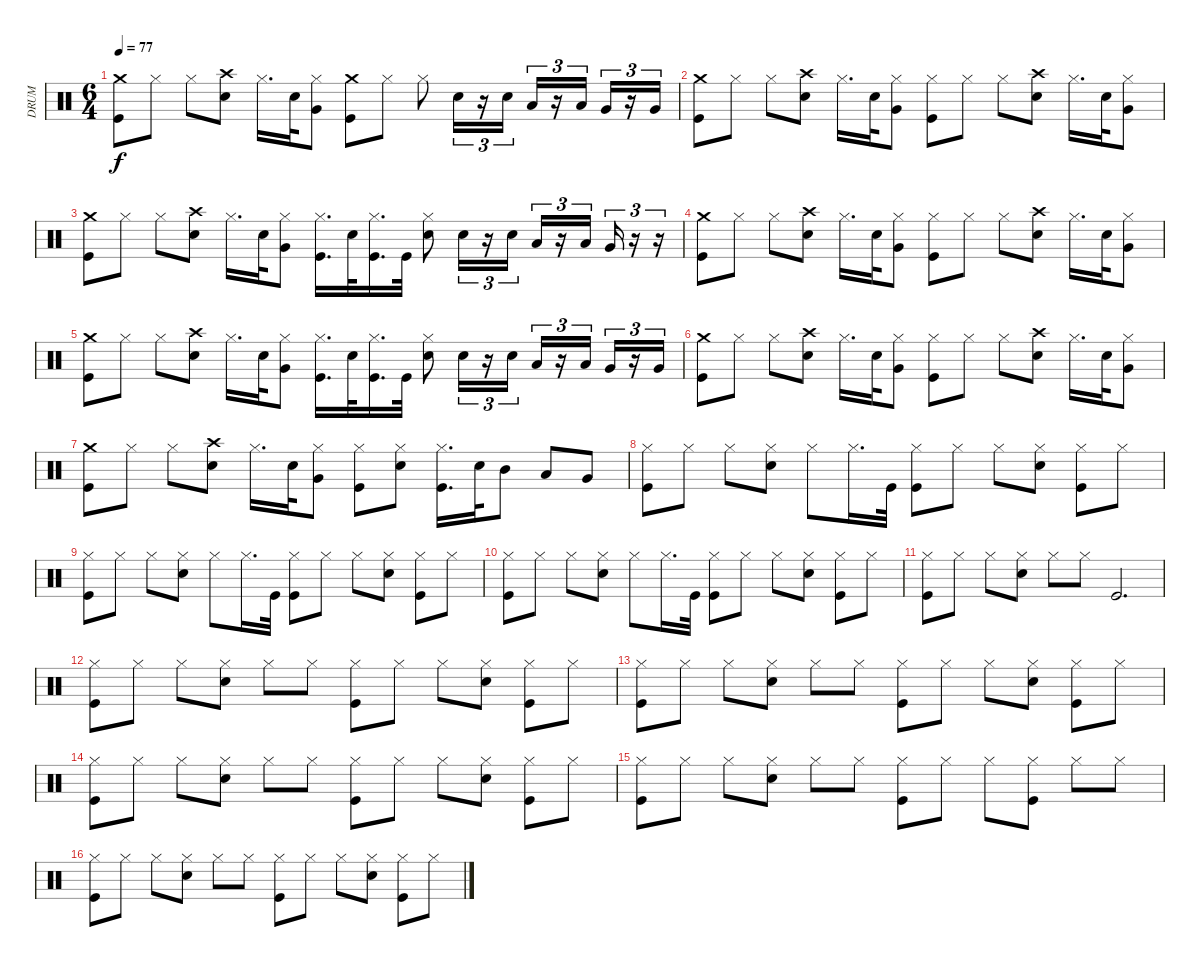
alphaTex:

\track ("DRUM" "DRUM") {instrument percussion}
\staff {score}
\articulation defaults
\ts (6 4)
\tempo 77
\clef neutral
\ks c
("Crash medium (hit)" "Kick (hit)").8{dy f} "Hi-Hat (closed)".8 "Hi-Hat (closed)".8 ("Crash high (hit)" "Snare (hit) 2").8 "Hi-Hat (closed)".16{d} "Snare (hit) 2".32 ("Hi-Hat (closed)" "Very Low Tom (hit)").8 ("Crash medium (hit)" "Kick (hit)").8 "Hi-Hat (closed)".8 "Hi-Hat (closed)".8 "Snare (hit) 2".16{tu (3 2)} r.16{tu (3 2)} "Snare (hit) 2".16{tu (3 2)} "Low Tom (hit)".16{tu (3 2)} r.16{tu (3 2)} "Low Tom (hit)".16{tu (3 2)} "Very Low Tom (hit)".16{tu (3 2)} r.16{tu (3 2)} "Very Low Tom (hit)".16{tu (3 2)} |
("Crash medium (hit)" "Kick (hit)").8 "Hi-Hat (closed)".8 "Hi-Hat (closed)".8 ("Crash high (hit)" "Snare (hit) 2").8 "Hi-Hat (closed)".16{d} "Snare (hit) 2".32 ("Hi-Hat (closed)" "Very Low Tom (hit)").8 ("Hi-Hat (closed)" "Kick (hit)").8 "Hi-Hat (closed)".8 "Hi-Hat (closed)".8 ("Crash high (hit)" "Snare (hit) 2").8 "Hi-Hat (closed)".16{d} "Snare (hit) 2".32 ("Hi-Hat (closed)" "Very Low Tom (hit)").8 |
("Crash medium (hit)" "Kick (hit)").8 "Hi-Hat (closed)".8 "Hi-Hat (closed)".8 ("Crash high (hit)" "Snare (hit) 2").8 "Hi-Hat (closed)".16{d} "Snare (hit) 2".32 ("Hi-Hat (closed)" "Very Low Tom (hit)").8 ("Hi-Hat (closed)" "Kick (hit)").16{d} "Snare (hit) 2".32 ("Hi-Hat (closed)" "Kick (hit)").16{d} "Kick (hit)".32 ("Hi-Hat (closed)" "Snare (hit) 2").8 "Snare (hit) 2".16{tu (3 2)} r.16{tu (3 2)} "Snare (hit) 2".16{tu (3 2)} "Low Tom (hit)".16{tu (3 2)} r.16{tu (3 2)} "Low Tom (hit)".16{tu (3 2)} "Very Low Tom (hit)".16{tu (3 2)} r.16{tu (3 2)} r.16{tu (3 2)} |
("Crash medium (hit)" "Kick (hit)").8 "Hi-Hat (closed)".8 "Hi-Hat (closed)".8 ("Crash high (hit)" "Snare (hit) 2").8 "Hi-Hat (closed)".16{d} "Snare (hit) 2".32 ("Hi-Hat (closed)" "Very Low Tom (hit)").8 ("Hi-Hat (closed)" "Kick (hit)").8 "Hi-Hat (closed)".8 "Hi-Hat (closed)".8 ("Crash high (hit)" "Snare (hit) 2").8 "Hi-Hat (closed)".16{d} "Snare (hit) 2".32 ("Hi-Hat (closed)" "Very Low Tom (hit)").8 |
("Crash medium (hit)" "Kick (hit)").8 "Hi-Hat (closed)".8 "Hi-Hat (closed)".8 ("Crash high (hit)" "Snare (hit) 2").8 "Hi-Hat (closed)".16{d} "Snare (hit) 2".32 ("Hi-Hat (closed)" "Very Low Tom (hit)").8 ("Hi-Hat (closed)" "Kick (hit)").16{d} "Snare (hit) 2".32 ("Hi-Hat (closed)" "Kick (hit)").16{d} "Kick (hit)".32 ("Hi-Hat (closed)" "Snare (hit) 2").8 "Snare (hit) 2".16{tu (3 2)} r.16{tu (3 2)} "Snare (hit) 2".16{tu (3 2)} "Low Tom (hit)".16{tu (3 2)} r.16{tu (3 2)} "Low Tom (hit)".16{tu (3 2)} "Very Low Tom (hit)".16{tu (3 2)} r.16{tu (3 2)} "Very Low Tom (hit)".16{tu (3 2)} |
("Crash medium (hit)" "Kick (hit)").8 "Hi-Hat (closed)".8 "Hi-Hat (closed)".8 ("Crash high (hit)" "Snare (hit) 2").8 "Hi-Hat (closed)".16{d} "Snare (hit) 2".32 ("Hi-Hat (closed)" "Very Low Tom (hit)").8 ("Hi-Hat (closed)" "Kick (hit)").8 "Hi-Hat (closed)".8 "Hi-Hat (closed)".8 ("Crash high (hit)" "Snare (hit) 2").8 "Hi-Hat (closed)".16{d} "Snare (hit) 2".32 ("Hi-Hat (closed)" "Very Low Tom (hit)").8 |
("Crash medium (hit)" "Kick (hit)").8 "Hi-Hat (closed)".8 "Hi-Hat (closed)".8 ("Crash high (hit)" "Snare (hit) 2").8 "Hi-Hat (closed)".16{d} "Snare (hit) 2".32 ("Hi-Hat (closed)" "Very Low Tom (hit)").8 ("Hi-Hat (closed)" "Kick (hit)").8 ("Hi-Hat (closed)" "Snare (hit) 2").8 ("Hi-Hat (closed)" "Kick (hit)").16{d} "Snare (hit) 2".32 "Mid Tom (hit)".8 "Low Tom (hit)".8 "Very Low Tom (hit)".8 |
("Hi-Hat (closed)" "Kick (hit)").8 "Hi-Hat (closed)".8 "Hi-Hat (closed)".8 ("Hi-Hat (closed)" "Snare (hit) 2").8 "Hi-Hat (closed)".8 "Hi-Hat (closed)".16{d} "Kick (hit)".32 ("Hi-Hat (closed)" "Kick (hit)").8 "Hi-Hat (closed)".8 "Hi-Hat (closed)".8 ("Hi-Hat (closed)" "Snare (hit) 2").8 ("Hi-Hat (closed)" "Kick (hit)").8 "Hi-Hat (closed)".8 |
("Hi-Hat (closed)" "Kick (hit)").8 "Hi-Hat (closed)".8 "Hi-Hat (closed)".8 ("Hi-Hat (closed)" "Snare (hit) 2").8 "Hi-Hat (closed)".8 "Hi-Hat (closed)".16{d} "Kick (hit)".32 ("Hi-Hat (closed)" "Kick (hit)").8 "Hi-Hat (closed)".8 "Hi-Hat (closed)".8 ("Hi-Hat (closed)" "Snare (hit) 2").8 ("Hi-Hat (closed)" "Kick (hit)").8 "Hi-Hat (closed)".8 |
("Hi-Hat (closed)" "Kick (hit)").8 "Hi-Hat (closed)".8 "Hi-Hat (closed)".8 ("Hi-Hat (closed)" "Snare (hit) 2").8 "Hi-Hat (closed)".8 "Hi-Hat (closed)".16{d} "Kick (hit)".32 ("Hi-Hat (closed)" "Kick (hit)").8 "Hi-Hat (closed)".8 "Hi-Hat (closed)".8 ("Hi-Hat (closed)" "Snare (hit) 2").8 ("Hi-Hat (closed)" "Kick (hit)").8 "Hi-Hat (closed)".8 |
("Hi-Hat (closed)" "Kick (hit)").8 "Hi-Hat (closed)".8 "Hi-Hat (closed)".8 ("Hi-Hat (closed)" "Snare (hit) 2").8 "Hi-Hat (closed)".8 "Hi-Hat (closed)".8 "Kick (hit)".2{d} |
("Hi-Hat (closed)" "Kick (hit)").8 "Hi-Hat (closed)".8 "Hi-Hat (closed)".8 ("Hi-Hat (closed)" "Snare (hit) 2").8 "Hi-Hat (closed)".8 "Hi-Hat (closed)".8 ("Hi-Hat (closed)" "Kick (hit)").8 "Hi-Hat (closed)".8 "Hi-Hat (closed)".8 ("Hi-Hat (closed)" "Snare (hit) 2").8 ("Hi-Hat (closed)" "Kick (hit)").8 "Hi-Hat (closed)".8 |
("Hi-Hat (closed)" "Kick (hit)").8 "Hi-Hat (closed)".8 "Hi-Hat (closed)".8 ("Hi-Hat (closed)" "Snare (hit) 2").8 "Hi-Hat (closed)".8 "Hi-Hat (closed)".8 ("Hi-Hat (closed)" "Kick (hit)").8 "Hi-Hat (closed)".8 "Hi-Hat (closed)".8 ("Hi-Hat (closed)" "Snare (hit) 2").8 ("Hi-Hat (closed)" "Kick (hit)").8 "Hi-Hat (closed)".8 |
("Hi-Hat (closed)" "Kick (hit)").8 "Hi-Hat (closed)".8 "Hi-Hat (closed)".8 ("Hi-Hat (closed)" "Snare (hit) 2").8 "Hi-Hat (closed)".8 "Hi-Hat (closed)".8 ("Hi-Hat (closed)" "Kick (hit)").8 "Hi-Hat (closed)".8 "Hi-Hat (closed)".8 ("Hi-Hat (closed)" "Snare (hit) 2").8 ("Hi-Hat (closed)" "Kick (hit)").8 "Hi-Hat (closed)".8 |
("Hi-Hat (closed)" "Kick (hit)").8 "Hi-Hat (closed)".8 "Hi-Hat (closed)".8 ("Hi-Hat (closed)" "Snare (hit) 2").8 "Hi-Hat (closed)".8 "Hi-Hat (closed)".8 ("Hi-Hat (closed)" "Kick (hit)").8 "Hi-Hat (closed)".8 "Hi-Hat (closed)".8 ("Hi-Hat (closed)" "Kick (hit)").8 "Hi-Hat (closed)".8 "Hi-Hat (closed)".8 |
("Hi-Hat (closed)" "Kick (hit)").8 "Hi-Hat (closed)".8 "Hi-Hat (closed)".8 ("Hi-Hat (closed)" "Snare (hit) 2").8 "Hi-Hat (closed)".8 "Hi-Hat (closed)".8 ("Hi-Hat (closed)" "Kick (hit)").8 "Hi-Hat (closed)".8 "Hi-Hat (closed)".8 ("Hi-Hat (closed)" "Snare (hit) 2").8 ("Hi-Hat (closed)" "Kick (hit)").8 "Hi-Hat (closed)".8
